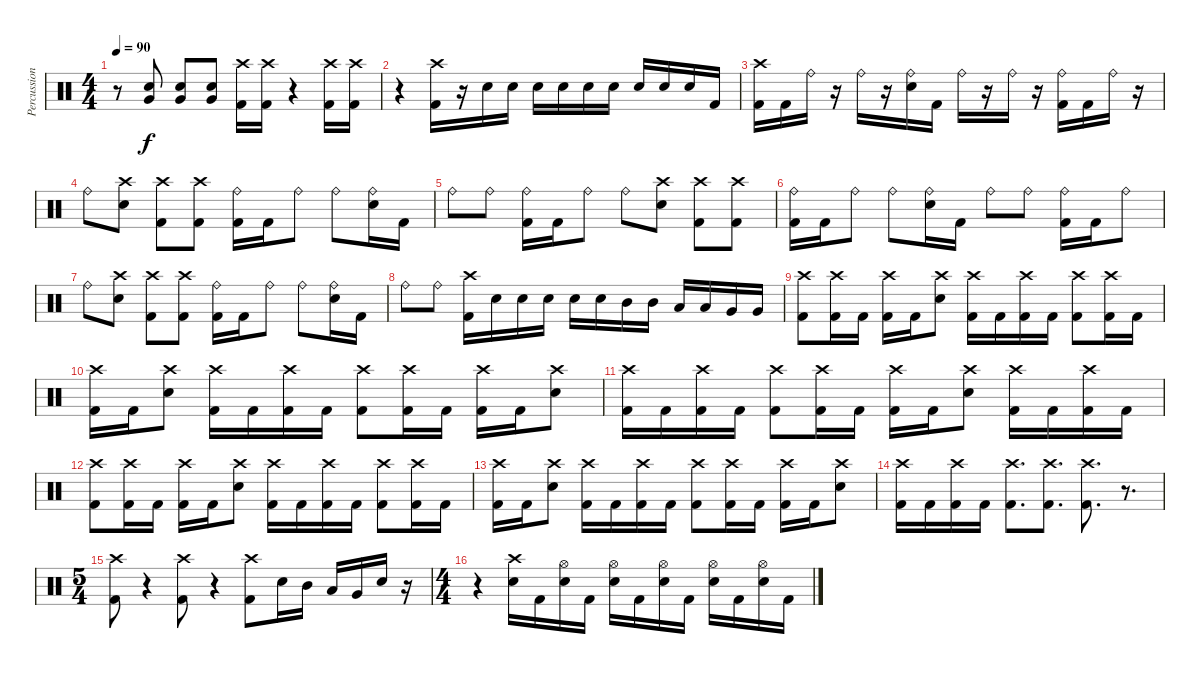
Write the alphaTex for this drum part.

\track ("Percussion" "Percussion") {instrument percussion}
\staff {score}
\articulation defaults
\ts (4 4)
\tempo 90
\clef neutral
\ks c
r.8{dy f} ("Very Low Tom (hit)" "Snare (hit) 2").8 ("Very Low Tom (hit)" "Snare (hit) 2").8 ("Very Low Tom (hit)" "Snare (hit) 2").8 ("Crash high (hit)" "Kick (hit) 2").16 ("Crash high (hit)" "Kick (hit) 2").16 r.4 ("Crash high (hit)" "Kick (hit) 2").16 ("Crash high (hit)" "Kick (hit) 2").16 |
r.4 ("Crash high (hit)" "Kick (hit) 2").16 r.16 "Snare (hit) 2".16 "Snare (hit) 2".16 "Snare (hit) 2".16 "Snare (hit) 2".16 "Snare (hit) 2".16 "Snare (hit) 2".16 "Snare (hit) 2".16 "Snare (hit) 2".16 "Snare (hit) 2".16 "Kick (hit) 2".16 |
("Crash high (hit)" "Kick (hit) 2").16 "Kick (hit) 2".16 "Ride (bell)".16 r.16 "Ride (bell)".16 r.16 ("Ride (bell)" "Snare (hit) 2").16 "Kick (hit) 2".16 "Ride (bell)".16 r.16 "Ride (bell)".16 r.16 ("Ride (bell)" "Kick (hit) 2").16 "Kick (hit) 2".16 "Ride (bell)".16 r.16 |
"Ride (bell)".8 ("Crash high (hit)" "Snare (hit) 2").8 ("Crash high (hit)" "Kick (hit) 2").8 ("Crash high (hit)" "Kick (hit) 2").8 ("Ride (bell)" "Kick (hit) 2").16 "Kick (hit) 2".16 "Ride (bell)".8 "Ride (bell)".8 ("Ride (bell)" "Snare (hit) 2").16 "Kick (hit) 2".16 |
"Ride (bell)".8 "Ride (bell)".8 ("Ride (bell)" "Kick (hit) 2").16 "Kick (hit) 2".16 "Ride (bell)".8 "Ride (bell)".8 ("Crash high (hit)" "Snare (hit) 2").8 ("Crash high (hit)" "Kick (hit) 2").8 ("Crash high (hit)" "Kick (hit) 2").8 |
("Ride (bell)" "Kick (hit) 2").16 "Kick (hit) 2".16 "Ride (bell)".8 "Ride (bell)".8 ("Ride (bell)" "Snare (hit) 2").16 "Kick (hit) 2".16 "Ride (bell)".8 "Ride (bell)".8 ("Ride (bell)" "Kick (hit) 2").16 "Kick (hit) 2".16 "Ride (bell)".8 |
"Ride (bell)".8 ("Crash high (hit)" "Snare (hit) 2").8 ("Crash high (hit)" "Kick (hit) 2").8 ("Crash high (hit)" "Kick (hit) 2").8 ("Ride (bell)" "Kick (hit) 2").16 "Kick (hit) 2".16 "Ride (bell)".8 "Ride (bell)".8 ("Ride (bell)" "Snare (hit) 2").16 "Kick (hit) 2".16 |
"Ride (bell)".8 "Ride (bell)".8 ("Crash high (hit)" "Kick (hit) 2").16 "Snare (hit) 2".16 "Snare (hit) 2".16 "Snare (hit) 2".16 "Snare (hit) 2".16 "Snare (hit) 2".16 "Mid Tom (hit)".16 "Mid Tom (hit)".16 "Low Tom (hit)".16 "Low Tom (hit)".16 "Very Low Tom (hit)".16 "Very Low Tom (hit)".16 |
("Crash high (hit)" "Kick (hit) 2").8 ("Crash high (hit)" "Kick (hit) 2").16 "Kick (hit) 2".16 ("Crash high (hit)" "Kick (hit) 2").16 "Kick (hit) 2".16 ("Crash high (hit)" "Snare (hit) 2").8 ("Crash high (hit)" "Kick (hit) 2").16 "Kick (hit) 2".16 ("Crash high (hit)" "Kick (hit) 2").16 "Kick (hit) 2".16 ("Crash high (hit)" "Kick (hit) 2").8 ("Crash high (hit)" "Kick (hit) 2").16 "Kick (hit) 2".16 |
("Crash high (hit)" "Kick (hit) 2").16 "Kick (hit) 2".16 ("Crash high (hit)" "Snare (hit) 2").8 ("Crash high (hit)" "Kick (hit) 2").16 "Kick (hit) 2".16 ("Crash high (hit)" "Kick (hit) 2").16 "Kick (hit) 2".16 ("Crash high (hit)" "Kick (hit) 2").8 ("Crash high (hit)" "Kick (hit) 2").16 "Kick (hit) 2".16 ("Crash high (hit)" "Kick (hit) 2").16 "Kick (hit) 2".16 ("Crash high (hit)" "Snare (hit) 2").8 |
("Crash high (hit)" "Kick (hit) 2").16 "Kick (hit) 2".16 ("Crash high (hit)" "Kick (hit) 2").16 "Kick (hit) 2".16 ("Crash high (hit)" "Kick (hit) 2").8 ("Crash high (hit)" "Kick (hit) 2").16 "Kick (hit) 2".16 ("Crash high (hit)" "Kick (hit) 2").16 "Kick (hit) 2".16 ("Crash high (hit)" "Snare (hit) 2").8 ("Crash high (hit)" "Kick (hit) 2").16 "Kick (hit) 2".16 ("Crash high (hit)" "Kick (hit) 2").16 "Kick (hit) 2".16 |
("Crash high (hit)" "Kick (hit) 2").8 ("Crash high (hit)" "Kick (hit) 2").16 "Kick (hit) 2".16 ("Crash high (hit)" "Kick (hit) 2").16 "Kick (hit) 2".16 ("Crash high (hit)" "Snare (hit) 2").8 ("Crash high (hit)" "Kick (hit) 2").16 "Kick (hit) 2".16 ("Crash high (hit)" "Kick (hit) 2").16 "Kick (hit) 2".16 ("Crash high (hit)" "Kick (hit) 2").8 ("Crash high (hit)" "Kick (hit) 2").16 "Kick (hit) 2".16 |
("Crash high (hit)" "Kick (hit) 2").16 "Kick (hit) 2".16 ("Crash high (hit)" "Snare (hit) 2").8 ("Crash high (hit)" "Kick (hit) 2").16 "Kick (hit) 2".16 ("Crash high (hit)" "Kick (hit) 2").16 "Kick (hit) 2".16 ("Crash high (hit)" "Kick (hit) 2").8 ("Crash high (hit)" "Kick (hit) 2").16 "Kick (hit) 2".16 ("Crash high (hit)" "Kick (hit) 2").16 "Kick (hit) 2".16 ("Crash high (hit)" "Snare (hit) 2").8 |
("Crash high (hit)" "Kick (hit) 2").16 "Kick (hit) 2".16 ("Crash high (hit)" "Kick (hit) 2").16 "Kick (hit) 2".16 ("Crash high (hit)" "Kick (hit) 2").8{d} ("Crash high (hit)" "Kick (hit) 2").8{d} ("Crash high (hit)" "Kick (hit) 2").8{d} r.8{d} |
\ts (5 4)
("Crash high (hit)" "Kick (hit) 2").8 r.4 ("Crash high (hit)" "Kick (hit) 2").8 r.4 ("Crash high (hit)" "Kick (hit) 2").8 "Snare (hit) 2".16 "Mid Tom (hit)".16 "Low Tom (hit)".16 "Very Low Tom (hit)".16 "Snare (hit) 2".16 r.16 |
\ts (4 4)
r.4 ("Crash high (hit)" "Snare (hit) 2").16 "Kick (hit) 2".16 ("Hi-Hat (open)" "Snare (hit) 2").16 "Kick (hit) 2".16 ("Hi-Hat (open)" "Snare (hit) 2").16 "Kick (hit) 2".16 ("Hi-Hat (open)" "Snare (hit) 2").16 "Kick (hit) 2".16 ("Hi-Hat (open)" "Snare (hit) 2").16 "Kick (hit) 2".16 ("Hi-Hat (open)" "Snare (hit) 2").16 "Kick (hit) 2".16
